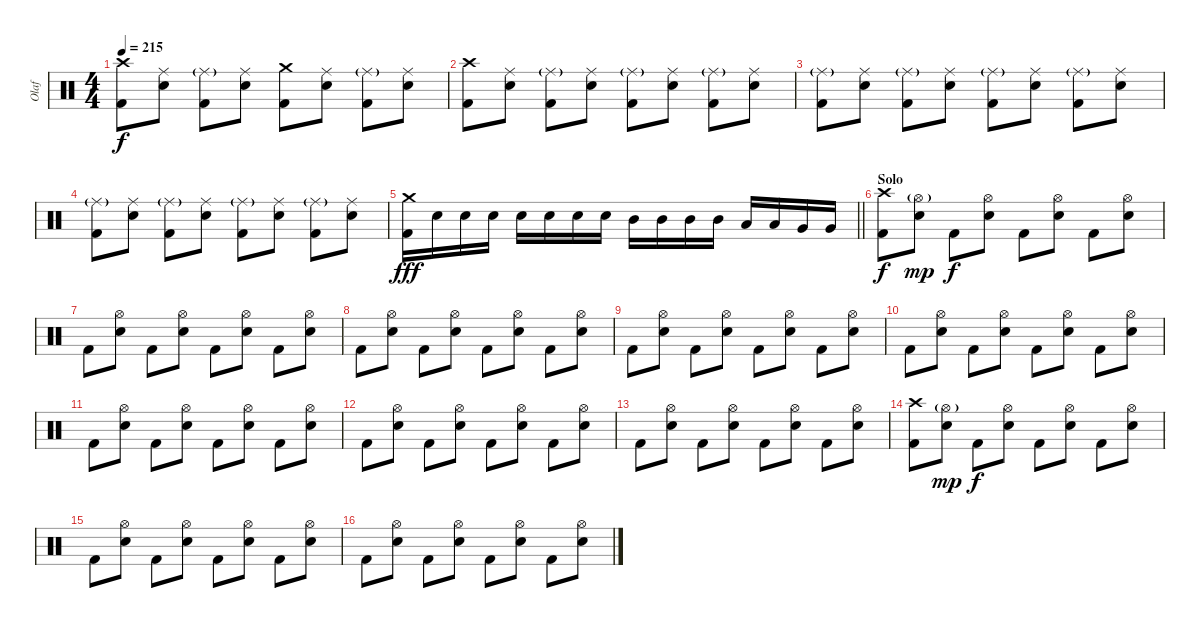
\track ("Olaf" "Olaf") {instrument percussion}
\staff {score}
\articulation defaults
\ts (4 4)
\tempo 215
\clef neutral
\ks c
("Crash high (hit)" "Kick (hit) 2").8{dy f} ("Ride (middle)" "Electric Snare (hit)").8 ("Ride (middle)"{g} "Kick (hit) 2").8 ("Ride (middle)" "Electric Snare (hit)").8 ("Crash medium (hit)" "Kick (hit) 2").8 ("Ride (middle)" "Electric Snare (hit)").8 ("Ride (middle)"{g} "Kick (hit) 2").8 ("Ride (middle)" "Electric Snare (hit)").8 |
("Crash high (hit)" "Kick (hit) 2").8 ("Ride (middle)" "Electric Snare (hit)").8 ("Ride (middle)"{g} "Kick (hit) 2").8 ("Ride (middle)" "Electric Snare (hit)").8 ("Ride (middle)"{g} "Kick (hit) 2").8 ("Ride (middle)" "Electric Snare (hit)").8 ("Ride (middle)"{g} "Kick (hit) 2").8 ("Ride (middle)" "Electric Snare (hit)").8 |
("Ride (middle)"{g} "Kick (hit) 2").8 ("Ride (middle)" "Electric Snare (hit)").8 ("Ride (middle)"{g} "Kick (hit) 2").8 ("Ride (middle)" "Electric Snare (hit)").8 ("Ride (middle)"{g} "Kick (hit) 2").8 ("Ride (middle)" "Electric Snare (hit)").8 ("Ride (middle)"{g} "Kick (hit) 2").8 ("Ride (middle)" "Electric Snare (hit)").8 |
("Ride (middle)"{g} "Kick (hit) 2").8 ("Ride (middle)" "Electric Snare (hit)").8 ("Ride (middle)"{g} "Kick (hit) 2").8 ("Ride (middle)" "Electric Snare (hit)").8 ("Ride (middle)"{g} "Kick (hit) 2").8 ("Ride (middle)" "Electric Snare (hit)").8 ("Ride (middle)"{g} "Kick (hit) 2").8 ("Ride (middle)" "Electric Snare (hit)").8 |
\barLineRight lightlight
("Crash medium (hit)" "Kick (hit) 2").16{dy fff} "Electric Snare (hit)".16 "Electric Snare (hit)".16 "Electric Snare (hit)".16 "Electric Snare (hit)".16 "Electric Snare (hit)".16 "Electric Snare (hit)".16 "Electric Snare (hit)".16 "Mid Tom (hit)".16 "Mid Tom (hit)".16 "Mid Tom (hit)".16 "Mid Tom (hit)".16 "Low Tom (hit)".16 "Low Tom (hit)".16 "Very Low Tom (hit)".16 "Very Low Tom (hit)".16 |
\section ("" "Solo")
("Crash high (hit)" "Kick (hit) 2").8{dy f} ("Hi-Hat (open)"{g} "Electric Snare (hit)").8{dy mp} "Kick (hit) 2".8{dy f} ("Hi-Hat (open)" "Electric Snare (hit)").8 "Kick (hit) 2".8 ("Hi-Hat (open)" "Electric Snare (hit)").8 "Kick (hit) 2".8 ("Hi-Hat (open)" "Electric Snare (hit)").8 |
"Kick (hit) 2".8 ("Hi-Hat (open)" "Electric Snare (hit)").8 "Kick (hit) 2".8 ("Hi-Hat (open)" "Electric Snare (hit)").8 "Kick (hit) 2".8 ("Hi-Hat (open)" "Electric Snare (hit)").8 "Kick (hit) 2".8 ("Hi-Hat (open)" "Electric Snare (hit)").8 |
"Kick (hit) 2".8 ("Hi-Hat (open)" "Electric Snare (hit)").8 "Kick (hit) 2".8 ("Hi-Hat (open)" "Electric Snare (hit)").8 "Kick (hit) 2".8 ("Hi-Hat (open)" "Electric Snare (hit)").8 "Kick (hit) 2".8 ("Hi-Hat (open)" "Electric Snare (hit)").8 |
"Kick (hit) 2".8 ("Hi-Hat (open)" "Electric Snare (hit)").8 "Kick (hit) 2".8 ("Hi-Hat (open)" "Electric Snare (hit)").8 "Kick (hit) 2".8 ("Hi-Hat (open)" "Electric Snare (hit)").8 "Kick (hit) 2".8 ("Hi-Hat (open)" "Electric Snare (hit)").8 |
"Kick (hit) 2".8 ("Hi-Hat (open)" "Electric Snare (hit)").8 "Kick (hit) 2".8 ("Hi-Hat (open)" "Electric Snare (hit)").8 "Kick (hit) 2".8 ("Hi-Hat (open)" "Electric Snare (hit)").8 "Kick (hit) 2".8 ("Hi-Hat (open)" "Electric Snare (hit)").8 |
"Kick (hit) 2".8 ("Hi-Hat (open)" "Electric Snare (hit)").8 "Kick (hit) 2".8 ("Hi-Hat (open)" "Electric Snare (hit)").8 "Kick (hit) 2".8 ("Hi-Hat (open)" "Electric Snare (hit)").8 "Kick (hit) 2".8 ("Hi-Hat (open)" "Electric Snare (hit)").8 |
"Kick (hit) 2".8 ("Hi-Hat (open)" "Electric Snare (hit)").8 "Kick (hit) 2".8 ("Hi-Hat (open)" "Electric Snare (hit)").8 "Kick (hit) 2".8 ("Hi-Hat (open)" "Electric Snare (hit)").8 "Kick (hit) 2".8 ("Hi-Hat (open)" "Electric Snare (hit)").8 |
"Kick (hit) 2".8 ("Hi-Hat (open)" "Electric Snare (hit)").8 "Kick (hit) 2".8 ("Hi-Hat (open)" "Electric Snare (hit)").8 "Kick (hit) 2".8 ("Hi-Hat (open)" "Electric Snare (hit)").8 "Kick (hit) 2".8 ("Hi-Hat (open)" "Electric Snare (hit)").8 |
("Crash high (hit)" "Kick (hit) 2").8 ("Hi-Hat (open)"{g} "Electric Snare (hit)").8{dy mp} "Kick (hit) 2".8{dy f} ("Hi-Hat (open)" "Electric Snare (hit)").8 "Kick (hit) 2".8 ("Hi-Hat (open)" "Electric Snare (hit)").8 "Kick (hit) 2".8 ("Hi-Hat (open)" "Electric Snare (hit)").8 |
"Kick (hit) 2".8 ("Hi-Hat (open)" "Electric Snare (hit)").8 "Kick (hit) 2".8 ("Hi-Hat (open)" "Electric Snare (hit)").8 "Kick (hit) 2".8 ("Hi-Hat (open)" "Electric Snare (hit)").8 "Kick (hit) 2".8 ("Hi-Hat (open)" "Electric Snare (hit)").8 |
"Kick (hit) 2".8 ("Hi-Hat (open)" "Electric Snare (hit)").8 "Kick (hit) 2".8 ("Hi-Hat (open)" "Electric Snare (hit)").8 "Kick (hit) 2".8 ("Hi-Hat (open)" "Electric Snare (hit)").8 "Kick (hit) 2".8 ("Hi-Hat (open)" "Electric Snare (hit)").8
